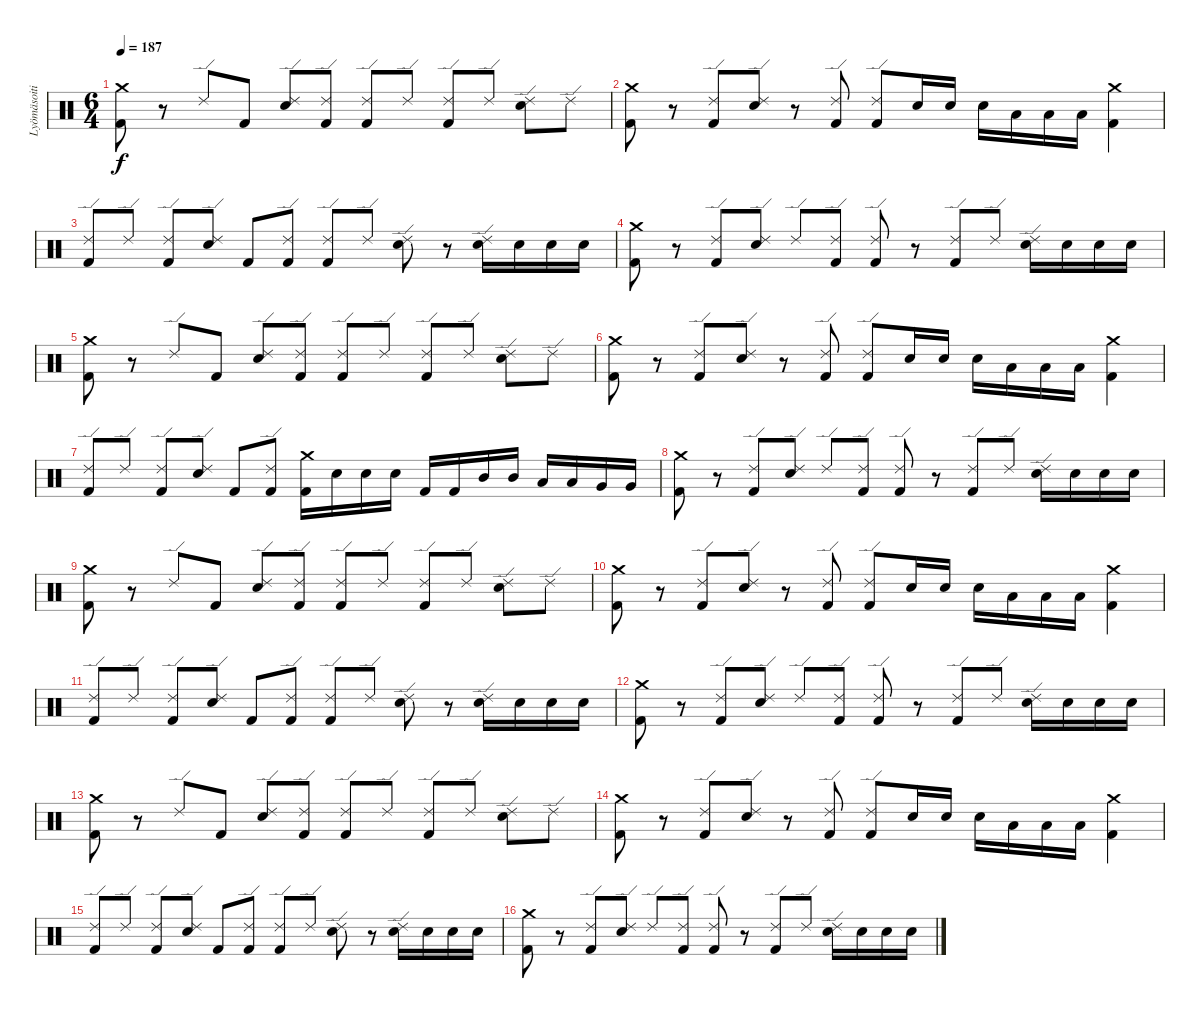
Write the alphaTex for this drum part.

\track ("Lyömäsoitin" "Lyömäsoiti") {instrument percussion}
\staff {score}
\articulation defaults
\ts (6 4)
\tempo 187
\clef neutral
\ks c
("Kick (hit) 2" "Crash medium (hit)").8{dy f} r.8 "Ride (edge) 2".8 "Kick (hit) 2".8 ("Ride (edge) 2" "Snare (hit) 2").8 ("Ride (edge) 2" "Kick (hit) 2").8 ("Ride (edge) 2" "Kick (hit) 2").8 "Ride (edge) 2".8 ("Ride (edge) 2" "Kick (hit) 2").8 "Ride (edge) 2".8 ("Ride (edge) 2" "Snare (hit) 2").8 "Ride (edge) 2".8 |
("Kick (hit) 2" "Crash medium (hit)").8 r.8 ("Kick (hit) 2" "Ride (edge) 2").8 ("Snare (hit) 2" "Ride (edge) 2").8 r.8 ("Ride (edge) 2" "Kick (hit) 2").8 ("Ride (edge) 2" "Kick (hit) 2").8 "Snare (hit) 2".16 "Snare (hit) 2".16 "Snare (hit) 2".16 "Low Tom (hit)".16 "Low Tom (hit)".16 "Low Tom (hit)".16 ("Kick (hit) 2" "Crash medium (hit)").4 |
("Kick (hit) 2" "Ride (edge) 2").8 "Ride (edge) 2".8 ("Kick (hit) 2" "Ride (edge) 2").8 ("Ride (edge) 2" "Snare (hit) 2").8 "Kick (hit) 2".8 ("Kick (hit) 2" "Ride (edge) 2").8 ("Ride (edge) 2" "Kick (hit) 2").8 "Ride (edge) 2".8 ("Ride (edge) 2" "Snare (hit) 2").8 r.8 ("Ride (edge) 2" "Snare (hit) 2").16 "Snare (hit) 2".16 "Snare (hit) 2".16 "Snare (hit) 2".16 |
("Kick (hit) 2" "Crash medium (hit)").8 r.8 ("Kick (hit) 2" "Ride (edge) 2").8 ("Snare (hit) 2" "Ride (edge) 2").8 "Ride (edge) 2".8 ("Ride (edge) 2" "Kick (hit) 2").8 ("Ride (edge) 2" "Kick (hit) 2").8 r.8 ("Ride (edge) 2" "Kick (hit) 2").8 "Ride (edge) 2".8 ("Ride (edge) 2" "Snare (hit) 2").16 "Snare (hit) 2".16 "Snare (hit) 2".16 "Snare (hit) 2".16 |
("Kick (hit) 2" "Crash medium (hit)").8 r.8 "Ride (edge) 2".8 "Kick (hit) 2".8 ("Ride (edge) 2" "Snare (hit) 2").8 ("Ride (edge) 2" "Kick (hit) 2").8 ("Ride (edge) 2" "Kick (hit) 2").8 "Ride (edge) 2".8 ("Ride (edge) 2" "Kick (hit) 2").8 "Ride (edge) 2".8 ("Ride (edge) 2" "Snare (hit) 2").8 "Ride (edge) 2".8 |
("Kick (hit) 2" "Crash medium (hit)").8 r.8 ("Kick (hit) 2" "Ride (edge) 2").8 ("Snare (hit) 2" "Ride (edge) 2").8 r.8 ("Ride (edge) 2" "Kick (hit) 2").8 ("Ride (edge) 2" "Kick (hit) 2").8 "Snare (hit) 2".16 "Snare (hit) 2".16 "Snare (hit) 2".16 "Low Tom (hit)".16 "Low Tom (hit)".16 "Low Tom (hit)".16 ("Kick (hit) 2" "Crash medium (hit)").4 |
("Kick (hit) 2" "Ride (edge) 2").8 "Ride (edge) 2".8 ("Kick (hit) 2" "Ride (edge) 2").8 ("Ride (edge) 2" "Snare (hit) 2").8 "Kick (hit) 2".8 ("Kick (hit) 2" "Ride (edge) 2").8 ("Crash medium (hit)" "Kick (hit) 2").16 "Snare (hit) 2".16 "Snare (hit) 2".16 "Snare (hit) 2".16 "Kick (hit) 2".16 "Kick (hit) 2".16 "Mid Tom (hit)".16 "Mid Tom (hit)".16 "Low Tom (hit)".16 "Low Tom (hit)".16 "Very Low Tom (hit)".16 "Very Low Tom (hit)".16 |
("Kick (hit) 2" "Crash medium (hit)").8 r.8 ("Kick (hit) 2" "Ride (edge) 2").8 ("Snare (hit) 2" "Ride (edge) 2").8 "Ride (edge) 2".8 ("Ride (edge) 2" "Kick (hit) 2").8 ("Ride (edge) 2" "Kick (hit) 2").8 r.8 ("Ride (edge) 2" "Kick (hit) 2").8 "Ride (edge) 2".8 ("Ride (edge) 2" "Snare (hit) 2").16 "Snare (hit) 2".16 "Snare (hit) 2".16 "Snare (hit) 2".16 |
("Kick (hit) 2" "Crash medium (hit)").8 r.8 "Ride (edge) 2".8 "Kick (hit) 2".8 ("Ride (edge) 2" "Snare (hit) 2").8 ("Ride (edge) 2" "Kick (hit) 2").8 ("Ride (edge) 2" "Kick (hit) 2").8 "Ride (edge) 2".8 ("Ride (edge) 2" "Kick (hit) 2").8 "Ride (edge) 2".8 ("Ride (edge) 2" "Snare (hit) 2").8 "Ride (edge) 2".8 |
("Kick (hit) 2" "Crash medium (hit)").8 r.8 ("Kick (hit) 2" "Ride (edge) 2").8 ("Snare (hit) 2" "Ride (edge) 2").8 r.8 ("Ride (edge) 2" "Kick (hit) 2").8 ("Ride (edge) 2" "Kick (hit) 2").8 "Snare (hit) 2".16 "Snare (hit) 2".16 "Snare (hit) 2".16 "Low Tom (hit)".16 "Low Tom (hit)".16 "Low Tom (hit)".16 ("Kick (hit) 2" "Crash medium (hit)").4 |
("Kick (hit) 2" "Ride (edge) 2").8 "Ride (edge) 2".8 ("Kick (hit) 2" "Ride (edge) 2").8 ("Ride (edge) 2" "Snare (hit) 2").8 "Kick (hit) 2".8 ("Kick (hit) 2" "Ride (edge) 2").8 ("Ride (edge) 2" "Kick (hit) 2").8 "Ride (edge) 2".8 ("Ride (edge) 2" "Snare (hit) 2").8 r.8 ("Ride (edge) 2" "Snare (hit) 2").16 "Snare (hit) 2".16 "Snare (hit) 2".16 "Snare (hit) 2".16 |
("Kick (hit) 2" "Crash medium (hit)").8 r.8 ("Kick (hit) 2" "Ride (edge) 2").8 ("Snare (hit) 2" "Ride (edge) 2").8 "Ride (edge) 2".8 ("Ride (edge) 2" "Kick (hit) 2").8 ("Ride (edge) 2" "Kick (hit) 2").8 r.8 ("Ride (edge) 2" "Kick (hit) 2").8 "Ride (edge) 2".8 ("Ride (edge) 2" "Snare (hit) 2").16 "Snare (hit) 2".16 "Snare (hit) 2".16 "Snare (hit) 2".16 |
("Kick (hit) 2" "Crash medium (hit)").8 r.8 "Ride (edge) 2".8 "Kick (hit) 2".8 ("Ride (edge) 2" "Snare (hit) 2").8 ("Ride (edge) 2" "Kick (hit) 2").8 ("Ride (edge) 2" "Kick (hit) 2").8 "Ride (edge) 2".8 ("Ride (edge) 2" "Kick (hit) 2").8 "Ride (edge) 2".8 ("Ride (edge) 2" "Snare (hit) 2").8 "Ride (edge) 2".8 |
("Kick (hit) 2" "Crash medium (hit)").8 r.8 ("Kick (hit) 2" "Ride (edge) 2").8 ("Snare (hit) 2" "Ride (edge) 2").8 r.8 ("Ride (edge) 2" "Kick (hit) 2").8 ("Ride (edge) 2" "Kick (hit) 2").8 "Snare (hit) 2".16 "Snare (hit) 2".16 "Snare (hit) 2".16 "Low Tom (hit)".16 "Low Tom (hit)".16 "Low Tom (hit)".16 ("Kick (hit) 2" "Crash medium (hit)").4 |
("Kick (hit) 2" "Ride (edge) 2").8 "Ride (edge) 2".8 ("Kick (hit) 2" "Ride (edge) 2").8 ("Ride (edge) 2" "Snare (hit) 2").8 "Kick (hit) 2".8 ("Kick (hit) 2" "Ride (edge) 2").8 ("Ride (edge) 2" "Kick (hit) 2").8 "Ride (edge) 2".8 ("Ride (edge) 2" "Snare (hit) 2").8 r.8 ("Ride (edge) 2" "Snare (hit) 2").16 "Snare (hit) 2".16 "Snare (hit) 2".16 "Snare (hit) 2".16 |
("Kick (hit) 2" "Crash medium (hit)").8 r.8 ("Kick (hit) 2" "Ride (edge) 2").8 ("Snare (hit) 2" "Ride (edge) 2").8 "Ride (edge) 2".8 ("Ride (edge) 2" "Kick (hit) 2").8 ("Ride (edge) 2" "Kick (hit) 2").8 r.8 ("Ride (edge) 2" "Kick (hit) 2").8 "Ride (edge) 2".8 ("Ride (edge) 2" "Snare (hit) 2").16 "Snare (hit) 2".16 "Snare (hit) 2".16 "Snare (hit) 2".16
